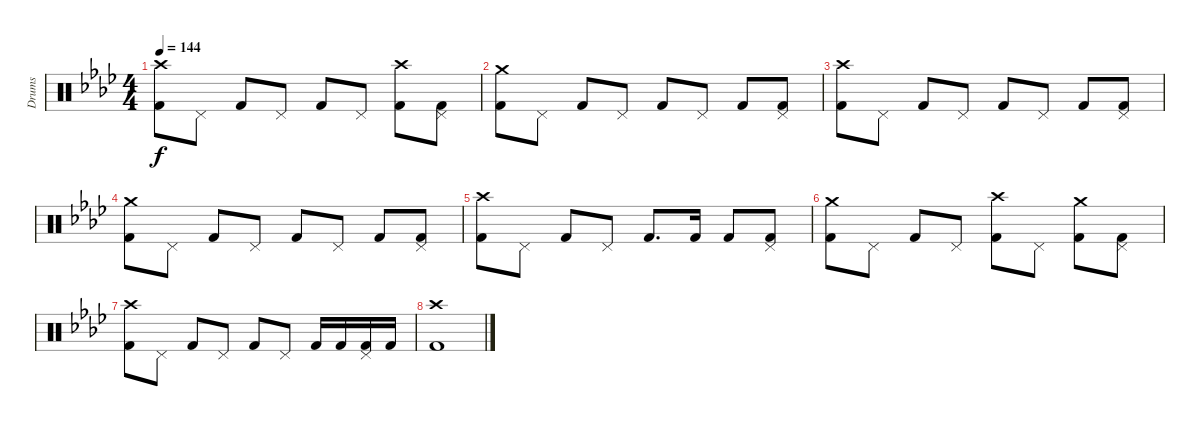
\track ("Drums" "Drums") {instrument percussion}
\staff {score}
\articulation defaults
\ts (4 4)
\tempo 144
\clef neutral
\ks ab
("Kick (hit) 2" "Crash high (hit)").8{dy f} "Pedal Hi-Hat (hit)".8 "Kick (hit) 2".8 "Pedal Hi-Hat (hit)".8 "Kick (hit) 2".8 "Pedal Hi-Hat (hit)".8 ("Kick (hit) 2" "Crash high (hit)").8 ("Kick (hit) 2" "Pedal Hi-Hat (hit)").8 |
("Kick (hit) 2" "Crash medium (hit)").8 "Pedal Hi-Hat (hit)".8 "Kick (hit) 2".8 "Pedal Hi-Hat (hit)".8 "Kick (hit) 2".8 "Pedal Hi-Hat (hit)".8 "Kick (hit) 2".8 ("Kick (hit) 2" "Pedal Hi-Hat (hit)").8 |
("Kick (hit) 2" "Crash high (hit)").8 "Pedal Hi-Hat (hit)".8 "Kick (hit) 2".8 "Pedal Hi-Hat (hit)".8 "Kick (hit) 2".8 "Pedal Hi-Hat (hit)".8 "Kick (hit) 2".8 ("Kick (hit) 2" "Pedal Hi-Hat (hit)").8 |
("Kick (hit) 2" "Crash medium (hit)").8 "Pedal Hi-Hat (hit)".8 "Kick (hit) 2".8 "Pedal Hi-Hat (hit)".8 "Kick (hit) 2".8 "Pedal Hi-Hat (hit)".8 "Kick (hit) 2".8 ("Kick (hit) 2" "Pedal Hi-Hat (hit)").8 |
("Kick (hit) 2" "Crash high (hit)").8 "Pedal Hi-Hat (hit)".8 "Kick (hit) 2".8 "Pedal Hi-Hat (hit)".8 "Kick (hit) 2".8{d} "Kick (hit) 2".16 "Kick (hit) 2".8 ("Kick (hit) 2" "Pedal Hi-Hat (hit)").8 |
("Kick (hit) 2" "Crash medium (hit)").8 "Pedal Hi-Hat (hit)".8 "Kick (hit) 2".8 "Pedal Hi-Hat (hit)".8 ("Kick (hit) 2" "Crash high (hit)").8 "Pedal Hi-Hat (hit)".8 ("Kick (hit) 2" "Crash medium (hit)").8 ("Kick (hit) 2" "Pedal Hi-Hat (hit)").8 |
("Kick (hit) 2" "Crash high (hit)").8 "Pedal Hi-Hat (hit)".8 "Kick (hit) 2".8 "Pedal Hi-Hat (hit)".8 "Kick (hit) 2".8 "Pedal Hi-Hat (hit)".8 "Kick (hit) 2".16 "Kick (hit) 2".16 ("Kick (hit) 2" "Pedal Hi-Hat (hit)").16 "Kick (hit) 2".16 |
("Kick (hit) 2" "Crash high (hit)").1
